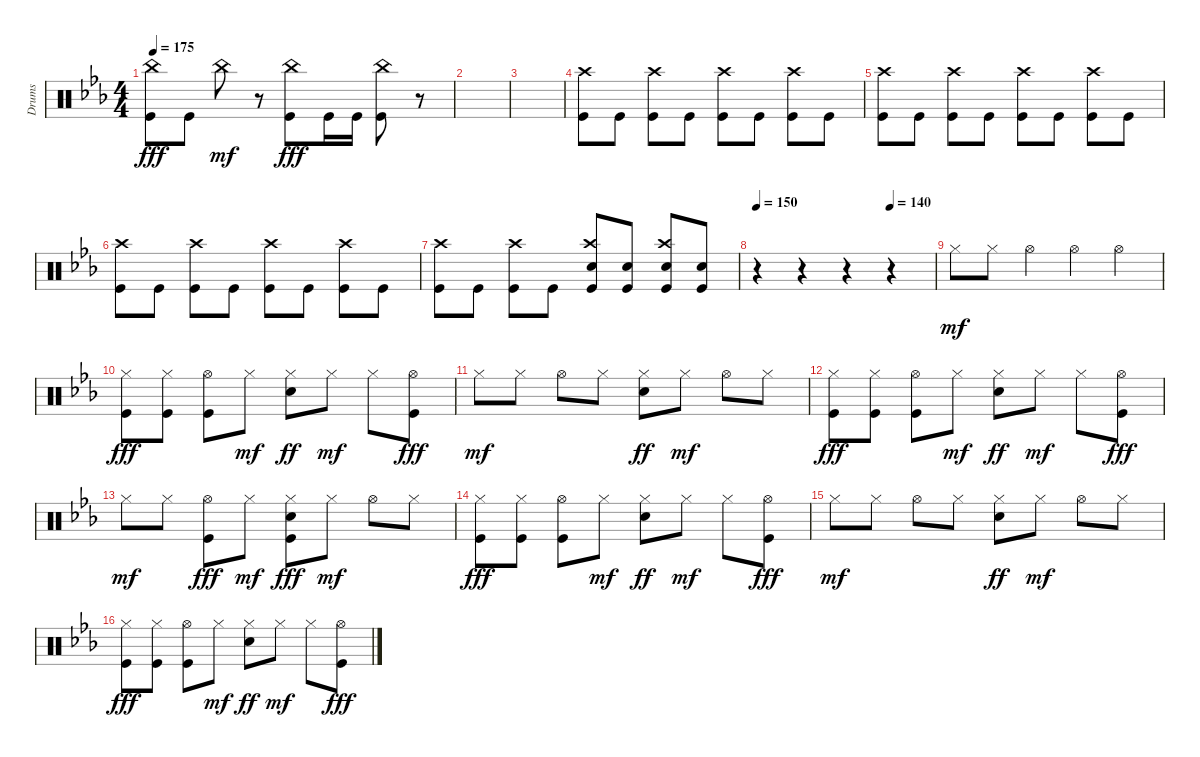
\track ("Drums" "Drums") {instrument percussion}
\staff {score}
\articulation defaults
\ts (4 4)
\tempo 175
\clef neutral
\ks cminor
("China (hit)" "Kick (hit)").8{dy fff} "Kick (hit)".8 "China (hit)".8{dy mf} r.8 ("China (hit)" "Kick (hit)").8{dy fff} "Kick (hit)".16 "Kick (hit)".16 ("China (hit)" "Kick (hit)").8 r.8 |
|
|
("Crash high (hit)" "Kick (hit)").8 "Kick (hit)".8 ("Crash high (hit)" "Kick (hit)").8 "Kick (hit)".8 ("Crash high (hit)" "Kick (hit)").8 "Kick (hit)".8 ("Crash high (hit)" "Kick (hit)").8 "Kick (hit)".8 |
("Crash high (hit)" "Kick (hit)").8 "Kick (hit)".8 ("Crash high (hit)" "Kick (hit)").8 "Kick (hit)".8 ("Crash high (hit)" "Kick (hit)").8 "Kick (hit)".8 ("Crash high (hit)" "Kick (hit)").8 "Kick (hit)".8 |
("Crash high (hit)" "Kick (hit)").8 "Kick (hit)".8 ("Crash high (hit)" "Kick (hit)").8 "Kick (hit)".8 ("Crash high (hit)" "Kick (hit)").8 "Kick (hit)".8 ("Crash high (hit)" "Kick (hit)").8 "Kick (hit)".8 |
("Crash high (hit)" "Kick (hit)").8 "Kick (hit)".8 ("Crash high (hit)" "Kick (hit)").8 "Kick (hit)".8 ("Snare (hit) 2" "Crash high (hit)" "Kick (hit)").8 ("Snare (hit) 2" "Kick (hit)").8 ("Snare (hit) 2" "Crash high (hit)" "Kick (hit)").8 ("Snare (hit) 2" "Kick (hit)").8 |
\tempo 150
\tempo (140 0.75)
r.4 r.4 r.4 r.4 |
"Hi-Hat (closed)".8{dy mf} "Hi-Hat (closed)".8 "Hi-Hat (open)".4 "Hi-Hat (open)".4 "Hi-Hat (open)".4 |
("Hi-Hat (closed)" "Kick (hit)").8{dy fff volume 11} ("Hi-Hat (closed)" "Kick (hit)").8 ("Hi-Hat (open)" "Kick (hit)").8 "Hi-Hat (closed)".8{dy mf} ("Hi-Hat (closed)" "Snare (hit) 2").8{dy ff} "Hi-Hat (closed)".8{dy mf} "Hi-Hat (closed)".8 ("Hi-Hat (open)" "Kick (hit)").8{dy fff} |
"Hi-Hat (closed)".8{dy mf} "Hi-Hat (closed)".8 "Hi-Hat (open)".8 "Hi-Hat (closed)".8 ("Hi-Hat (closed)" "Snare (hit) 2").8{dy ff} "Hi-Hat (closed)".8{dy mf} "Hi-Hat (open)".8 "Hi-Hat (closed)".8 |
("Hi-Hat (closed)" "Kick (hit)").8{dy fff} ("Hi-Hat (closed)" "Kick (hit)").8 ("Hi-Hat (open)" "Kick (hit)").8 "Hi-Hat (closed)".8{dy mf} ("Hi-Hat (closed)" "Snare (hit) 2").8{dy ff} "Hi-Hat (closed)".8{dy mf} "Hi-Hat (closed)".8 ("Hi-Hat (open)" "Kick (hit)").8{dy fff} |
"Hi-Hat (closed)".8{dy mf} "Hi-Hat (closed)".8 ("Hi-Hat (open)" "Kick (hit)").8{dy fff} "Hi-Hat (closed)".8{dy mf} ("Hi-Hat (closed)" "Snare (hit) 2" "Kick (hit)").8{dy fff} "Hi-Hat (closed)".8{dy mf} "Hi-Hat (open)".8 "Hi-Hat (closed)".8 |
("Hi-Hat (closed)" "Kick (hit)").8{dy fff} ("Hi-Hat (closed)" "Kick (hit)").8 ("Hi-Hat (open)" "Kick (hit)").8 "Hi-Hat (closed)".8{dy mf} ("Hi-Hat (closed)" "Snare (hit) 2").8{dy ff} "Hi-Hat (closed)".8{dy mf} "Hi-Hat (closed)".8 ("Hi-Hat (open)" "Kick (hit)").8{dy fff} |
"Hi-Hat (closed)".8{dy mf} "Hi-Hat (closed)".8 "Hi-Hat (open)".8 "Hi-Hat (closed)".8 ("Hi-Hat (closed)" "Snare (hit) 2").8{dy ff} "Hi-Hat (closed)".8{dy mf} "Hi-Hat (open)".8 "Hi-Hat (closed)".8 |
("Hi-Hat (closed)" "Kick (hit)").8{dy fff} ("Hi-Hat (closed)" "Kick (hit)").8 ("Hi-Hat (open)" "Kick (hit)").8 "Hi-Hat (closed)".8{dy mf} ("Hi-Hat (closed)" "Snare (hit) 2").8{dy ff} "Hi-Hat (closed)".8{dy mf} "Hi-Hat (closed)".8 ("Hi-Hat (open)" "Kick (hit)").8{dy fff}
